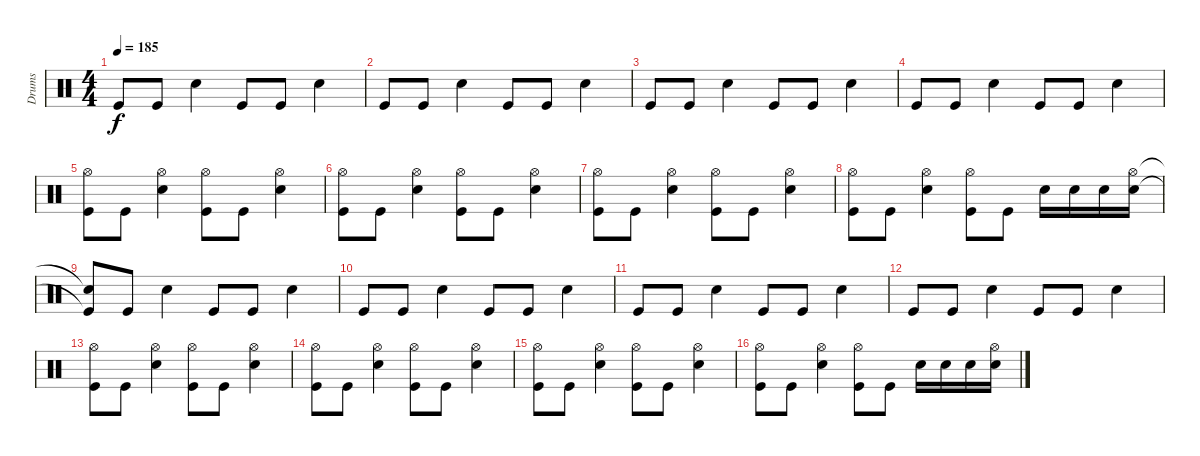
\track ("Drums" "Drums") {instrument percussion}
\staff {score}
\articulation defaults
\ts (4 4)
\tempo 185
\clef neutral
\ks c "Kick (hit)".8{dy f} "Kick (hit)".8 "Electric Snare (hit)".4 "Kick (hit)".8 "Kick (hit)".8 "Electric Snare (hit)".4
|
"Kick (hit)".8 "Kick (hit)".8 "Electric Snare (hit)".4 "Kick (hit)".8 "Kick (hit)".8 "Electric Snare (hit)".4 |
"Kick (hit)".8 "Kick (hit)".8 "Electric Snare (hit)".4 "Kick (hit)".8 "Kick (hit)".8 "Electric Snare (hit)".4 |
"Kick (hit)".8 "Kick (hit)".8 "Electric Snare (hit)".4 "Kick (hit)".8 "Kick (hit)".8 "Electric Snare (hit)".4 |
("Kick (hit)" "Hi-Hat (open)").8 "Kick (hit)".8 ("Electric Snare (hit)" "Hi-Hat (open)").4 ("Kick (hit)" "Hi-Hat (open)").8 "Kick (hit)".8 ("Electric Snare (hit)" "Hi-Hat (open)").4 |
("Kick (hit)" "Hi-Hat (open)").8 "Kick (hit)".8 ("Electric Snare (hit)" "Hi-Hat (open)").4 ("Kick (hit)" "Hi-Hat (open)").8 "Kick (hit)".8 ("Electric Snare (hit)" "Hi-Hat (open)").4 |
("Kick (hit)" "Hi-Hat (open)").8 "Kick (hit)".8 ("Electric Snare (hit)" "Hi-Hat (open)").4 ("Kick (hit)" "Hi-Hat (open)").8 "Kick (hit)".8 ("Electric Snare (hit)" "Hi-Hat (open)").4 |
("Kick (hit)" "Hi-Hat (open)").8 "Kick (hit)".8 ("Electric Snare (hit)" "Hi-Hat (open)").4 ("Kick (hit)" "Hi-Hat (open)").8 "Kick (hit)".8 "Electric Snare (hit)".16 "Electric Snare (hit)".16 "Electric Snare (hit)".16 ("Electric Snare (hit)" "Hi-Hat (open)").16 |
("Kick (hit)"{t} "Snare (hit)"{t}).8 "Kick (hit)".8 "Electric Snare (hit)".4 "Kick (hit)".8 "Kick (hit)".8 "Electric Snare (hit)".4 |
"Kick (hit)".8 "Kick (hit)".8 "Electric Snare (hit)".4 "Kick (hit)".8 "Kick (hit)".8 "Electric Snare (hit)".4 |
"Kick (hit)".8 "Kick (hit)".8 "Electric Snare (hit)".4 "Kick (hit)".8 "Kick (hit)".8 "Electric Snare (hit)".4 |
"Kick (hit)".8 "Kick (hit)".8 "Electric Snare (hit)".4 "Kick (hit)".8 "Kick (hit)".8 "Electric Snare (hit)".4 |
("Kick (hit)" "Hi-Hat (open)").8 "Kick (hit)".8 ("Electric Snare (hit)" "Hi-Hat (open)").4 ("Kick (hit)" "Hi-Hat (open)").8 "Kick (hit)".8 ("Electric Snare (hit)" "Hi-Hat (open)").4 |
("Kick (hit)" "Hi-Hat (open)").8 "Kick (hit)".8 ("Electric Snare (hit)" "Hi-Hat (open)").4 ("Kick (hit)" "Hi-Hat (open)").8 "Kick (hit)".8 ("Electric Snare (hit)" "Hi-Hat (open)").4 |
("Kick (hit)" "Hi-Hat (open)").8 "Kick (hit)".8 ("Electric Snare (hit)" "Hi-Hat (open)").4 ("Kick (hit)" "Hi-Hat (open)").8 "Kick (hit)".8 ("Electric Snare (hit)" "Hi-Hat (open)").4 |
("Kick (hit)" "Hi-Hat (open)").8 "Kick (hit)".8 ("Electric Snare (hit)" "Hi-Hat (open)").4 ("Kick (hit)" "Hi-Hat (open)").8 "Kick (hit)".8 "Electric Snare (hit)".16 "Electric Snare (hit)".16 "Electric Snare (hit)".16 ("Electric Snare (hit)" "Hi-Hat (open)").16
